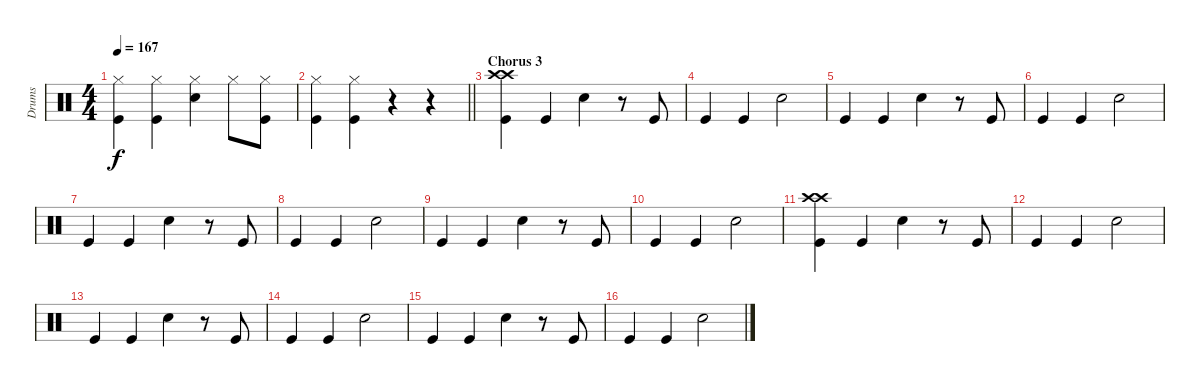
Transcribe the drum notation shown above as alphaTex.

\track ("Drums" "Drums") {instrument percussion}
\staff {score}
\articulation defaults
\ts (4 4)
\tempo 167
\clef neutral
\ks c
("Kick (hit)" "Hi-Hat (closed)").4{dy f} ("Kick (hit)" "Hi-Hat (closed)").4 ("Electric Snare (hit)" "Hi-Hat (closed)").4 "Hi-Hat (closed)".8 ("Kick (hit)" "Hi-Hat (closed)").8 |
\barLineRight lightlight
("Kick (hit)" "Hi-Hat (closed)").4 ("Kick (hit)" "Hi-Hat (closed)").4 r.4 r.4 |
\section ("" "Chorus 3")
("Crash high (hit)" "Kick (hit)" "Crash high (hit)").4 "Kick (hit)".4 "Electric Snare (hit)".4 r.8 "Kick (hit)".8 |
"Kick (hit)".4 "Kick (hit)".4 "Electric Snare (hit)".2 |
"Kick (hit)".4 "Kick (hit)".4 "Electric Snare (hit)".4 r.8 "Kick (hit)".8 |
"Kick (hit)".4 "Kick (hit)".4 "Electric Snare (hit)".2 |
"Kick (hit)".4 "Kick (hit)".4 "Electric Snare (hit)".4 r.8 "Kick (hit)".8 |
"Kick (hit)".4 "Kick (hit)".4 "Electric Snare (hit)".2 |
"Kick (hit)".4 "Kick (hit)".4 "Electric Snare (hit)".4 r.8 "Kick (hit)".8 |
"Kick (hit)".4 "Kick (hit)".4 "Electric Snare (hit)".2 |
("Crash high (hit)" "Kick (hit)" "Crash high (hit)").4 "Kick (hit)".4 "Electric Snare (hit)".4 r.8 "Kick (hit)".8 |
"Kick (hit)".4 "Kick (hit)".4 "Electric Snare (hit)".2 |
"Kick (hit)".4 "Kick (hit)".4 "Electric Snare (hit)".4 r.8 "Kick (hit)".8 |
"Kick (hit)".4 "Kick (hit)".4 "Electric Snare (hit)".2 |
"Kick (hit)".4 "Kick (hit)".4 "Electric Snare (hit)".4 r.8 "Kick (hit)".8 |
"Kick (hit)".4 "Kick (hit)".4 "Electric Snare (hit)".2
